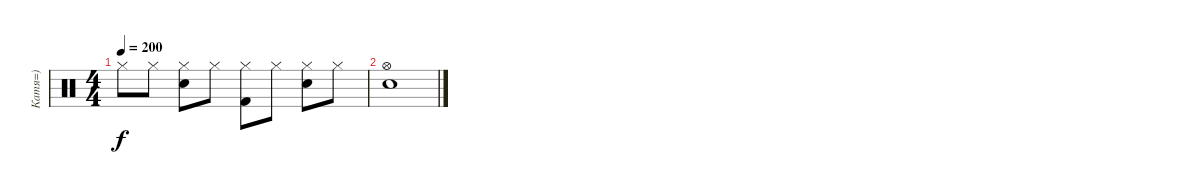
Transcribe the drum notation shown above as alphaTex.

\track ("Катя=)" "Катя=)") {instrument percussion}
\staff {score}
\articulation defaults
\ts (4 4)
\tempo 200
\clef neutral
\ks c "Hi-Hat (closed)".8{dy f} "Hi-Hat (closed)".8
("Hi-Hat (closed)" "Electric Snare (hit)").8 "Hi-Hat (closed)".8 ("Hi-Hat (closed)" "Kick (hit) 2").8 "Hi-Hat (closed)".8 ("Hi-Hat (closed)" "Electric Snare (hit)").8 "Hi-Hat (closed)".8 |
("Hi-Hat (open)" "Electric Snare (hit)").1
